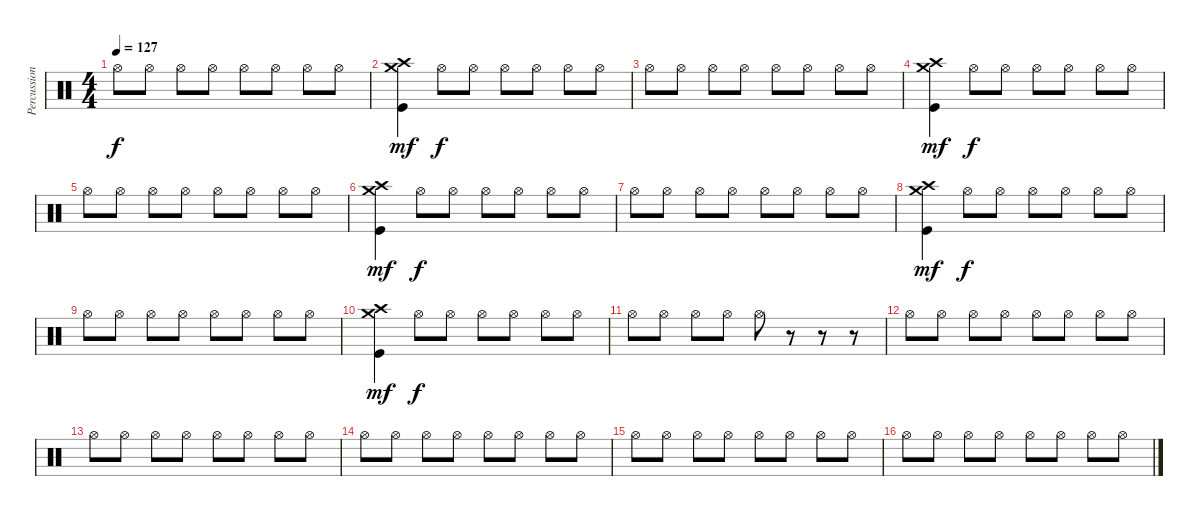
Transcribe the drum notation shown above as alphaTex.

\track ("Percussion" "Percussion") {instrument percussion}
\staff {score}
\articulation defaults
\ts (4 4)
\tempo 127
\clef neutral
\ks c "Hi-Hat (open)".8{dy f} "Hi-Hat (open)".8 "Hi-Hat (open)".8 "Hi-Hat (open)".8 "Hi-Hat (open)".8 "Hi-Hat (open)".8 "Hi-Hat (open)".8 "Hi-Hat (open)".8
|
("Crash medium (hit)" "Crash high (hit)" "Kick (hit)").4{dy mf volume 12} "Hi-Hat (open)".8{dy f} "Hi-Hat (open)".8 "Hi-Hat (open)".8 "Hi-Hat (open)".8 "Hi-Hat (open)".8 "Hi-Hat (open)".8 |
"Hi-Hat (open)".8 "Hi-Hat (open)".8 "Hi-Hat (open)".8 "Hi-Hat (open)".8 "Hi-Hat (open)".8 "Hi-Hat (open)".8 "Hi-Hat (open)".8 "Hi-Hat (open)".8 |
("Crash medium (hit)" "Crash high (hit)" "Kick (hit)").4{dy mf volume 12} "Hi-Hat (open)".8{dy f} "Hi-Hat (open)".8 "Hi-Hat (open)".8 "Hi-Hat (open)".8 "Hi-Hat (open)".8 "Hi-Hat (open)".8 |
"Hi-Hat (open)".8 "Hi-Hat (open)".8 "Hi-Hat (open)".8 "Hi-Hat (open)".8 "Hi-Hat (open)".8 "Hi-Hat (open)".8 "Hi-Hat (open)".8 "Hi-Hat (open)".8 |
("Crash medium (hit)" "Crash high (hit)" "Kick (hit)").4{dy mf volume 12} "Hi-Hat (open)".8{dy f} "Hi-Hat (open)".8 "Hi-Hat (open)".8 "Hi-Hat (open)".8 "Hi-Hat (open)".8 "Hi-Hat (open)".8 |
"Hi-Hat (open)".8 "Hi-Hat (open)".8 "Hi-Hat (open)".8 "Hi-Hat (open)".8 "Hi-Hat (open)".8 "Hi-Hat (open)".8 "Hi-Hat (open)".8 "Hi-Hat (open)".8 |
("Crash medium (hit)" "Crash high (hit)" "Kick (hit)").4{dy mf volume 12} "Hi-Hat (open)".8{dy f} "Hi-Hat (open)".8 "Hi-Hat (open)".8 "Hi-Hat (open)".8 "Hi-Hat (open)".8 "Hi-Hat (open)".8 |
"Hi-Hat (open)".8 "Hi-Hat (open)".8 "Hi-Hat (open)".8 "Hi-Hat (open)".8 "Hi-Hat (open)".8 "Hi-Hat (open)".8 "Hi-Hat (open)".8 "Hi-Hat (open)".8 |
("Crash medium (hit)" "Crash high (hit)" "Kick (hit)").4{dy mf volume 12} "Hi-Hat (open)".8{dy f} "Hi-Hat (open)".8 "Hi-Hat (open)".8 "Hi-Hat (open)".8 "Hi-Hat (open)".8 "Hi-Hat (open)".8 |
"Hi-Hat (open)".8 "Hi-Hat (open)".8 "Hi-Hat (open)".8 "Hi-Hat (open)".8 "Hi-Hat (open)".8 r.8 r.8 r.8 |
"Hi-Hat (open)".8 "Hi-Hat (open)".8 "Hi-Hat (open)".8 "Hi-Hat (open)".8 "Hi-Hat (open)".8 "Hi-Hat (open)".8 "Hi-Hat (open)".8 "Hi-Hat (open)".8 |
"Hi-Hat (open)".8 "Hi-Hat (open)".8 "Hi-Hat (open)".8 "Hi-Hat (open)".8 "Hi-Hat (open)".8 "Hi-Hat (open)".8 "Hi-Hat (open)".8 "Hi-Hat (open)".8 |
"Hi-Hat (open)".8 "Hi-Hat (open)".8 "Hi-Hat (open)".8 "Hi-Hat (open)".8 "Hi-Hat (open)".8 "Hi-Hat (open)".8 "Hi-Hat (open)".8 "Hi-Hat (open)".8 |
"Hi-Hat (open)".8 "Hi-Hat (open)".8 "Hi-Hat (open)".8 "Hi-Hat (open)".8 "Hi-Hat (open)".8 "Hi-Hat (open)".8 "Hi-Hat (open)".8 "Hi-Hat (open)".8 |
"Hi-Hat (open)".8 "Hi-Hat (open)".8 "Hi-Hat (open)".8 "Hi-Hat (open)".8 "Hi-Hat (open)".8 "Hi-Hat (open)".8 "Hi-Hat (open)".8 "Hi-Hat (open)".8
